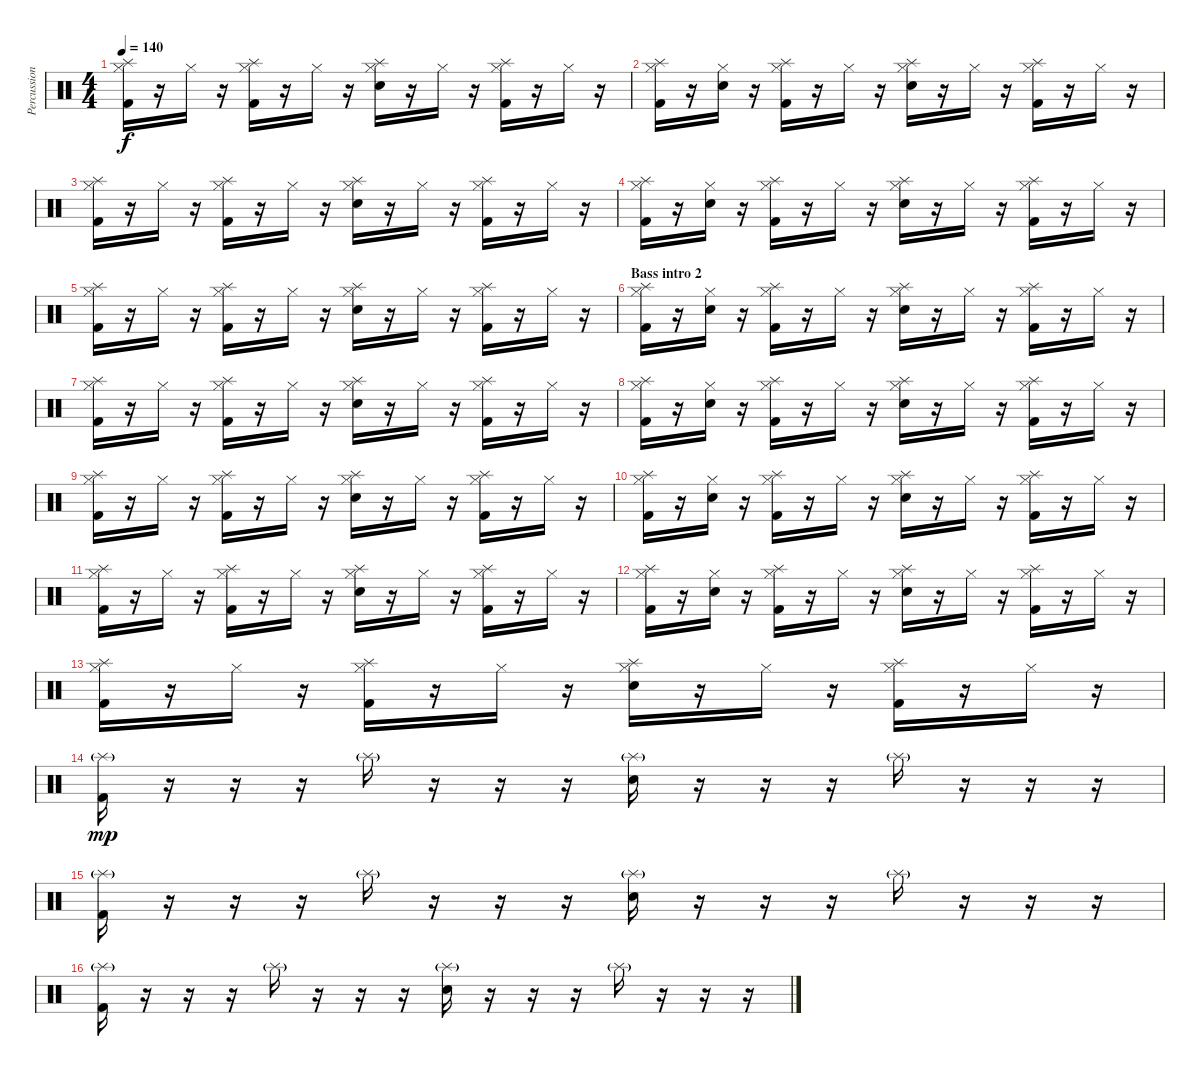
\track ("Percussion" "Percussion") {instrument percussion}
\staff {score}
\articulation defaults
\ts (4 4)
\tempo 140
\clef neutral
\ks c
("Kick (hit) 2" "Splash (hit)" "Hi-Hat (closed)").16{dy f} r.16 "Hi-Hat (closed)".16 r.16 ("Kick (hit) 2" "Splash (hit)" "Hi-Hat (closed)").16 r.16 "Hi-Hat (closed)".16 r.16 ("Snare (hit) 2" "Splash (hit)" "Hi-Hat (closed)").16 r.16 "Hi-Hat (closed)".16 r.16 ("Kick (hit) 2" "Splash (hit)" "Hi-Hat (closed)").16 r.16 "Hi-Hat (closed)".16 r.16 |
("Kick (hit) 2" "Splash (hit)" "Hi-Hat (closed)").16 r.16 ("Snare (hit) 2" "Hi-Hat (closed)").16 r.16 ("Kick (hit) 2" "Splash (hit)" "Hi-Hat (closed)").16 r.16 "Hi-Hat (closed)".16 r.16 ("Snare (hit) 2" "Splash (hit)" "Hi-Hat (closed)").16 r.16 "Hi-Hat (closed)".16 r.16 ("Kick (hit) 2" "Splash (hit)" "Hi-Hat (closed)").16 r.16 "Hi-Hat (closed)".16 r.16 |
("Kick (hit) 2" "Splash (hit)" "Hi-Hat (closed)").16 r.16 "Hi-Hat (closed)".16 r.16 ("Kick (hit) 2" "Splash (hit)" "Hi-Hat (closed)").16 r.16 "Hi-Hat (closed)".16 r.16 ("Snare (hit) 2" "Splash (hit)" "Hi-Hat (closed)").16 r.16 "Hi-Hat (closed)".16 r.16 ("Kick (hit) 2" "Splash (hit)" "Hi-Hat (closed)").16 r.16 "Hi-Hat (closed)".16 r.16 |
("Kick (hit) 2" "Splash (hit)" "Hi-Hat (closed)").16 r.16 ("Snare (hit) 2" "Hi-Hat (closed)").16 r.16 ("Kick (hit) 2" "Splash (hit)" "Hi-Hat (closed)").16 r.16 "Hi-Hat (closed)".16 r.16 ("Snare (hit) 2" "Splash (hit)" "Hi-Hat (closed)").16 r.16 "Hi-Hat (closed)".16 r.16 ("Kick (hit) 2" "Splash (hit)" "Hi-Hat (closed)").16 r.16 "Hi-Hat (closed)".16 r.16 |
("Kick (hit) 2" "Splash (hit)" "Hi-Hat (closed)").16 r.16 "Hi-Hat (closed)".16 r.16 ("Kick (hit) 2" "Splash (hit)" "Hi-Hat (closed)").16 r.16 "Hi-Hat (closed)".16 r.16 ("Snare (hit) 2" "Splash (hit)" "Hi-Hat (closed)").16 r.16 "Hi-Hat (closed)".16 r.16 ("Kick (hit) 2" "Splash (hit)" "Hi-Hat (closed)").16 r.16 "Hi-Hat (closed)".16 r.16 |
\section ("" "Bass intro 2")
("Kick (hit) 2" "Splash (hit)" "Hi-Hat (closed)").16 r.16 ("Snare (hit) 2" "Hi-Hat (closed)").16 r.16 ("Kick (hit) 2" "Splash (hit)" "Hi-Hat (closed)").16 r.16 "Hi-Hat (closed)".16 r.16 ("Snare (hit) 2" "Splash (hit)" "Hi-Hat (closed)").16 r.16 "Hi-Hat (closed)".16 r.16 ("Kick (hit) 2" "Splash (hit)" "Hi-Hat (closed)").16 r.16 "Hi-Hat (closed)".16 r.16 |
("Kick (hit) 2" "Splash (hit)" "Hi-Hat (closed)").16 r.16 "Hi-Hat (closed)".16 r.16 ("Kick (hit) 2" "Splash (hit)" "Hi-Hat (closed)").16 r.16 "Hi-Hat (closed)".16 r.16 ("Snare (hit) 2" "Splash (hit)" "Hi-Hat (closed)").16 r.16 "Hi-Hat (closed)".16 r.16 ("Kick (hit) 2" "Splash (hit)" "Hi-Hat (closed)").16 r.16 "Hi-Hat (closed)".16 r.16 |
("Kick (hit) 2" "Splash (hit)" "Hi-Hat (closed)").16 r.16 ("Snare (hit) 2" "Hi-Hat (closed)").16 r.16 ("Kick (hit) 2" "Splash (hit)" "Hi-Hat (closed)").16 r.16 "Hi-Hat (closed)".16 r.16 ("Snare (hit) 2" "Splash (hit)" "Hi-Hat (closed)").16 r.16 "Hi-Hat (closed)".16 r.16 ("Kick (hit) 2" "Splash (hit)" "Hi-Hat (closed)").16 r.16 "Hi-Hat (closed)".16 r.16 |
("Kick (hit) 2" "Splash (hit)" "Hi-Hat (closed)").16 r.16 "Hi-Hat (closed)".16 r.16 ("Kick (hit) 2" "Splash (hit)" "Hi-Hat (closed)").16 r.16 "Hi-Hat (closed)".16 r.16 ("Snare (hit) 2" "Splash (hit)" "Hi-Hat (closed)").16 r.16 "Hi-Hat (closed)".16 r.16 ("Kick (hit) 2" "Splash (hit)" "Hi-Hat (closed)").16 r.16 "Hi-Hat (closed)".16 r.16 |
("Kick (hit) 2" "Splash (hit)" "Hi-Hat (closed)").16 r.16 ("Snare (hit) 2" "Hi-Hat (closed)").16 r.16 ("Kick (hit) 2" "Splash (hit)" "Hi-Hat (closed)").16 r.16 "Hi-Hat (closed)".16 r.16 ("Snare (hit) 2" "Splash (hit)" "Hi-Hat (closed)").16 r.16 "Hi-Hat (closed)".16 r.16 ("Kick (hit) 2" "Splash (hit)" "Hi-Hat (closed)").16 r.16 "Hi-Hat (closed)".16 r.16 |
("Kick (hit) 2" "Splash (hit)" "Hi-Hat (closed)").16 r.16 "Hi-Hat (closed)".16 r.16 ("Kick (hit) 2" "Splash (hit)" "Hi-Hat (closed)").16 r.16 "Hi-Hat (closed)".16 r.16 ("Snare (hit) 2" "Splash (hit)" "Hi-Hat (closed)").16 r.16 "Hi-Hat (closed)".16 r.16 ("Kick (hit) 2" "Splash (hit)" "Hi-Hat (closed)").16 r.16 "Hi-Hat (closed)".16 r.16 |
("Kick (hit) 2" "Splash (hit)" "Hi-Hat (closed)").16 r.16 ("Snare (hit) 2" "Hi-Hat (closed)").16 r.16 ("Kick (hit) 2" "Splash (hit)" "Hi-Hat (closed)").16 r.16 "Hi-Hat (closed)".16 r.16 ("Snare (hit) 2" "Splash (hit)" "Hi-Hat (closed)").16 r.16 "Hi-Hat (closed)".16 r.16 ("Kick (hit) 2" "Splash (hit)" "Hi-Hat (closed)").16 r.16 "Hi-Hat (closed)".16 r.16 |
("Kick (hit) 2" "Splash (hit)" "Hi-Hat (closed)").16 r.16 "Hi-Hat (closed)".16 r.16 ("Kick (hit) 2" "Splash (hit)" "Hi-Hat (closed)").16 r.16 "Hi-Hat (closed)".16 r.16 ("Snare (hit) 2" "Splash (hit)" "Hi-Hat (closed)").16 r.16 "Hi-Hat (closed)".16 r.16 ("Kick (hit) 2" "Splash (hit)" "Hi-Hat (closed)").16 r.16 "Hi-Hat (closed)".16 r.16 |
("Kick (hit) 2" "Splash (hit)"{g}).16{dy mp} r.16 r.16 r.16 "Splash (hit)"{g}.16 r.16 r.16 r.16 ("Snare (hit) 2" "Splash (hit)"{g}).16 r.16 r.16 r.16 "Splash (hit)"{g}.16 r.16 r.16 r.16 |
("Kick (hit) 2" "Splash (hit)"{g}).16 r.16 r.16 r.16 "Splash (hit)"{g}.16 r.16 r.16 r.16 ("Snare (hit) 2" "Splash (hit)"{g}).16 r.16 r.16 r.16 "Splash (hit)"{g}.16 r.16 r.16 r.16 |
("Kick (hit) 2" "Splash (hit)"{g}).16 r.16 r.16 r.16 "Splash (hit)"{g}.16 r.16 r.16 r.16 ("Snare (hit) 2" "Splash (hit)"{g}).16 r.16 r.16 r.16 "Splash (hit)"{g}.16 r.16 r.16 r.16
